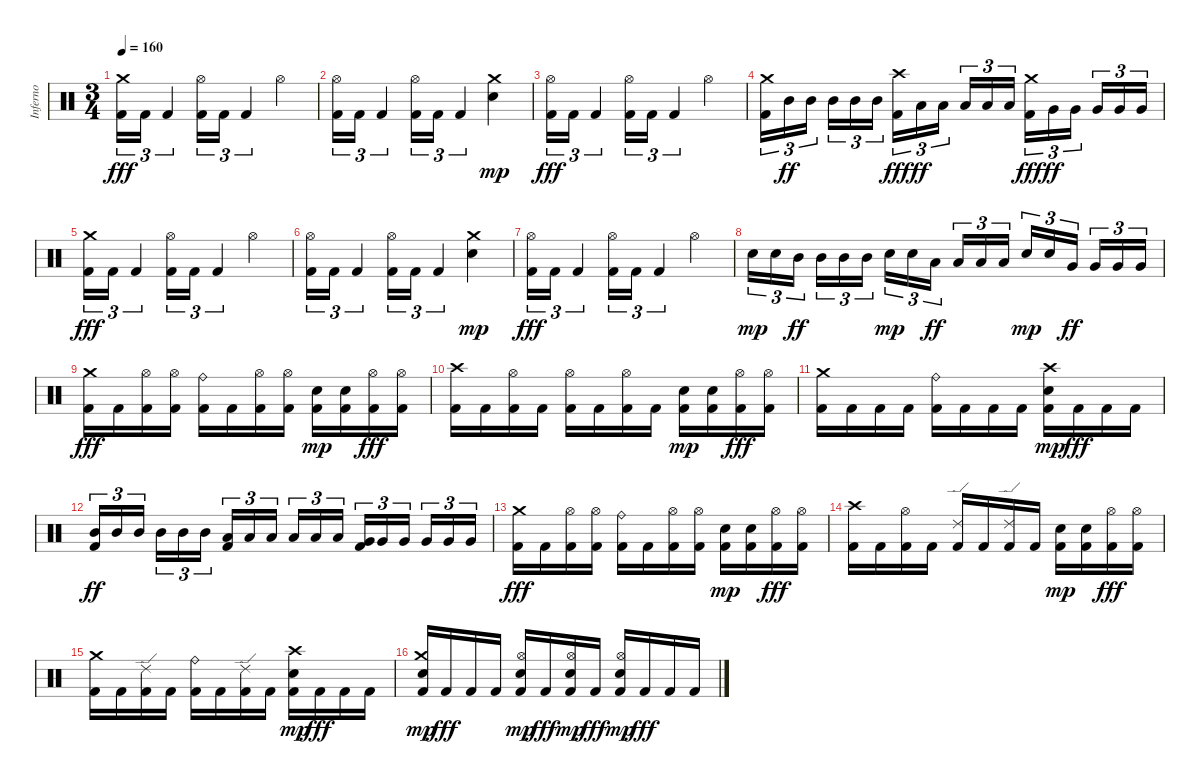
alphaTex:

\track ("Inferno" "Inferno") {instrument percussion}
\staff {score}
\articulation defaults
\ts (3 4)
\tempo 160
\clef neutral
\ks c
("Kick (hit) 2" "Crash medium (hit)").16{tu (3 2) dy fff} "Kick (hit) 2".16{tu (3 2)} "Kick (hit) 2".4{tu (3 2)} ("Kick (hit) 2" "Hi-Hat (open)").16{tu (3 2)} "Kick (hit) 2".16{tu (3 2)} "Kick (hit) 2".4{tu (3 2)} "Hi-Hat (open)".4 |
("Kick (hit) 2" "Hi-Hat (open)").16{tu (3 2)} "Kick (hit) 2".16{tu (3 2)} "Kick (hit) 2".4{tu (3 2)} ("Kick (hit) 2" "Hi-Hat (open)").16{tu (3 2)} "Kick (hit) 2".16{tu (3 2)} "Kick (hit) 2".4{tu (3 2)} ("Crash medium (hit)" "Electric Snare (hit)").4{dy mp} |
("Kick (hit) 2" "Hi-Hat (open)").16{tu (3 2) dy fff} "Kick (hit) 2".16{tu (3 2)} "Kick (hit) 2".4{tu (3 2)} ("Kick (hit) 2" "Hi-Hat (open)").16{tu (3 2)} "Kick (hit) 2".16{tu (3 2)} "Kick (hit) 2".4{tu (3 2)} "Hi-Hat (open)".4 |
("Kick (hit) 2" "Crash medium (hit)").16{tu (3 2)} "Mid Tom (hit)".16{tu (3 2) dy ff} "Mid Tom (hit)".16{tu (3 2) beam splitsecondary} "Mid Tom (hit)".16{tu (3 2)} "Mid Tom (hit)".16{tu (3 2)} "Mid Tom (hit)".16{tu (3 2)} ("Kick (hit) 2" "Crash high (hit)").16{tu (3 2) dy fff} "Low Tom (hit)".16{tu (3 2) dy ff} "Low Tom (hit)".16{tu (3 2) beam splitsecondary} "Low Tom (hit)".16{tu (3 2)} "Low Tom (hit)".16{tu (3 2)} "Low Tom (hit)".16{tu (3 2)} ("Kick (hit) 2" "Crash medium (hit)").16{tu (3 2) dy fff} "Very Low Tom (hit)".16{tu (3 2) dy ff} "Very Low Tom (hit)".16{tu (3 2) beam splitsecondary} "Very Low Tom (hit)".16{tu (3 2)} "Very Low Tom (hit)".16{tu (3 2)} "Very Low Tom (hit)".16{tu (3 2)} |
("Kick (hit) 2" "Crash medium (hit)").16{tu (3 2) dy fff} "Kick (hit) 2".16{tu (3 2)} "Kick (hit) 2".4{tu (3 2)} ("Kick (hit) 2" "Hi-Hat (open)").16{tu (3 2)} "Kick (hit) 2".16{tu (3 2)} "Kick (hit) 2".4{tu (3 2)} "Hi-Hat (open)".4 |
("Kick (hit) 2" "Hi-Hat (open)").16{tu (3 2)} "Kick (hit) 2".16{tu (3 2)} "Kick (hit) 2".4{tu (3 2)} ("Kick (hit) 2" "Hi-Hat (open)").16{tu (3 2)} "Kick (hit) 2".16{tu (3 2)} "Kick (hit) 2".4{tu (3 2)} ("Crash medium (hit)" "Electric Snare (hit)").4{dy mp} |
("Kick (hit) 2" "Hi-Hat (open)").16{tu (3 2) dy fff} "Kick (hit) 2".16{tu (3 2)} "Kick (hit) 2".4{tu (3 2)} ("Kick (hit) 2" "Hi-Hat (open)").16{tu (3 2)} "Kick (hit) 2".16{tu (3 2)} "Kick (hit) 2".4{tu (3 2)} "Hi-Hat (open)".4 |
"Electric Snare (hit)".16{tu (3 2) dy mp} "Electric Snare (hit)".16{tu (3 2)} "Mid Tom (hit)".16{tu (3 2) dy ff beam splitsecondary} "Mid Tom (hit)".16{tu (3 2)} "Mid Tom (hit)".16{tu (3 2)} "Mid Tom (hit)".16{tu (3 2)} "Electric Snare (hit)".16{tu (3 2) dy mp} "Electric Snare (hit)".16{tu (3 2)} "Low Tom (hit)".16{tu (3 2) dy ff beam splitsecondary} "Low Tom (hit)".16{tu (3 2)} "Low Tom (hit)".16{tu (3 2)} "Low Tom (hit)".16{tu (3 2)} "Electric Snare (hit)".16{tu (3 2) dy mp} "Electric Snare (hit)".16{tu (3 2)} "Very Low Tom (hit)".16{tu (3 2) dy ff beam splitsecondary} "Very Low Tom (hit)".16{tu (3 2)} "Very Low Tom (hit)".16{tu (3 2)} "Very Low Tom (hit)".16{tu (3 2)} |
("Kick (hit) 2" "Crash medium (hit)").16{dy fff} "Kick (hit) 2".16 ("Kick (hit) 2" "Hi-Hat (open)").16 ("Kick (hit) 2" "Hi-Hat (open)").16 ("Kick (hit) 2" "Ride (bell)").16 "Kick (hit) 2".16 ("Kick (hit) 2" "Hi-Hat (open)").16 ("Kick (hit) 2" "Hi-Hat (open)").16 ("Kick (hit) 2" "Electric Snare (hit)").16{dy mp} ("Kick (hit) 2" "Electric Snare (hit)").16 ("Kick (hit) 2" "Hi-Hat (open)").16{dy fff} ("Kick (hit) 2" "Hi-Hat (open)").16 |
("Kick (hit) 2" "Crash high (hit)").16 "Kick (hit) 2".16 ("Kick (hit) 2" "Hi-Hat (open)").16 "Kick (hit) 2".16 ("Kick (hit) 2" "Hi-Hat (open)").16 "Kick (hit) 2".16 ("Kick (hit) 2" "Hi-Hat (open)").16 "Kick (hit) 2".16 ("Kick (hit) 2" "Electric Snare (hit)").16{dy mp} ("Kick (hit) 2" "Electric Snare (hit)").16 ("Kick (hit) 2" "Hi-Hat (open)").16{dy fff} ("Kick (hit) 2" "Hi-Hat (open)").16 |
("Kick (hit) 2" "Crash medium (hit)").16 "Kick (hit) 2".16 "Kick (hit) 2".16 "Kick (hit) 2".16 ("Kick (hit) 2" "Ride (bell)").16 "Kick (hit) 2".16 "Kick (hit) 2".16 "Kick (hit) 2".16 ("Kick (hit) 2" "Crash high (hit)" "Electric Snare (hit)").16{dy mp} "Kick (hit) 2".16{dy fff} "Kick (hit) 2".16 "Kick (hit) 2".16 |
("Kick (hit) 2" "Mid Tom (hit)").16{tu (3 2) dy ff} "Mid Tom (hit)".16{tu (3 2)} "Mid Tom (hit)".16{tu (3 2) beam splitsecondary} "Mid Tom (hit)".16{tu (3 2)} "Mid Tom (hit)".16{tu (3 2)} "Mid Tom (hit)".16{tu (3 2)} ("Kick (hit) 2" "Low Tom (hit)").16{tu (3 2)} "Low Tom (hit)".16{tu (3 2)} "Low Tom (hit)".16{tu (3 2) beam splitsecondary} "Low Tom (hit)".16{tu (3 2)} "Low Tom (hit)".16{tu (3 2)} "Low Tom (hit)".16{tu (3 2)} ("Kick (hit) 2" "Very Low Tom (hit)").16{tu (3 2)} "Very Low Tom (hit)".16{tu (3 2)} "Very Low Tom (hit)".16{tu (3 2) beam splitsecondary} "Very Low Tom (hit)".16{tu (3 2)} "Very Low Tom (hit)".16{tu (3 2)} "Very Low Tom (hit)".16{tu (3 2)} |
("Kick (hit) 2" "Crash medium (hit)").16{dy fff} "Kick (hit) 2".16 ("Kick (hit) 2" "Hi-Hat (open)").16 ("Kick (hit) 2" "Hi-Hat (open)").16 ("Kick (hit) 2" "Ride (bell)").16 "Kick (hit) 2".16 ("Kick (hit) 2" "Hi-Hat (open)").16 ("Kick (hit) 2" "Hi-Hat (open)").16 ("Kick (hit) 2" "Electric Snare (hit)").16{dy mp} ("Kick (hit) 2" "Electric Snare (hit)").16 ("Kick (hit) 2" "Hi-Hat (open)").16{dy fff} ("Kick (hit) 2" "Hi-Hat (open)").16 |
("Kick (hit) 2" "Crash high (hit)").16 "Kick (hit) 2".16 ("Kick (hit) 2" "Hi-Hat (open)").16 "Kick (hit) 2".16 ("Kick (hit) 2" "Ride (edge) 2").16 "Kick (hit) 2".16 ("Kick (hit) 2" "Ride (edge) 2").16 "Kick (hit) 2".16 ("Kick (hit) 2" "Electric Snare (hit)").16{dy mp} ("Kick (hit) 2" "Electric Snare (hit)").16 ("Kick (hit) 2" "Hi-Hat (open)").16{dy fff} ("Kick (hit) 2" "Hi-Hat (open)").16 |
("Kick (hit) 2" "Crash medium (hit)").16 "Kick (hit) 2".16 ("Kick (hit) 2" "Ride (edge) 2").16 "Kick (hit) 2".16 ("Kick (hit) 2" "Ride (bell)").16 "Kick (hit) 2".16 ("Kick (hit) 2" "Ride (edge) 2").16 "Kick (hit) 2".16 ("Kick (hit) 2" "Crash high (hit)" "Electric Snare (hit)").16{dy mp} "Kick (hit) 2".16{dy fff} "Kick (hit) 2".16 "Kick (hit) 2".16 |
("Kick (hit) 2" "Crash medium (hit)" "Electric Snare (hit)").16{dy mp} "Kick (hit) 2".16{dy fff} "Kick (hit) 2".16 "Kick (hit) 2".16 ("Kick (hit) 2" "Hi-Hat (open)" "Electric Snare (hit)").16{dy mp} "Kick (hit) 2".16{dy fff} ("Kick (hit) 2" "Hi-Hat (open)" "Electric Snare (hit)").16{dy mp} "Kick (hit) 2".16{dy fff} ("Kick (hit) 2" "Hi-Hat (open)" "Electric Snare (hit)").16{dy mp} "Kick (hit) 2".16{dy fff} "Kick (hit) 2".16 "Kick (hit) 2".16
